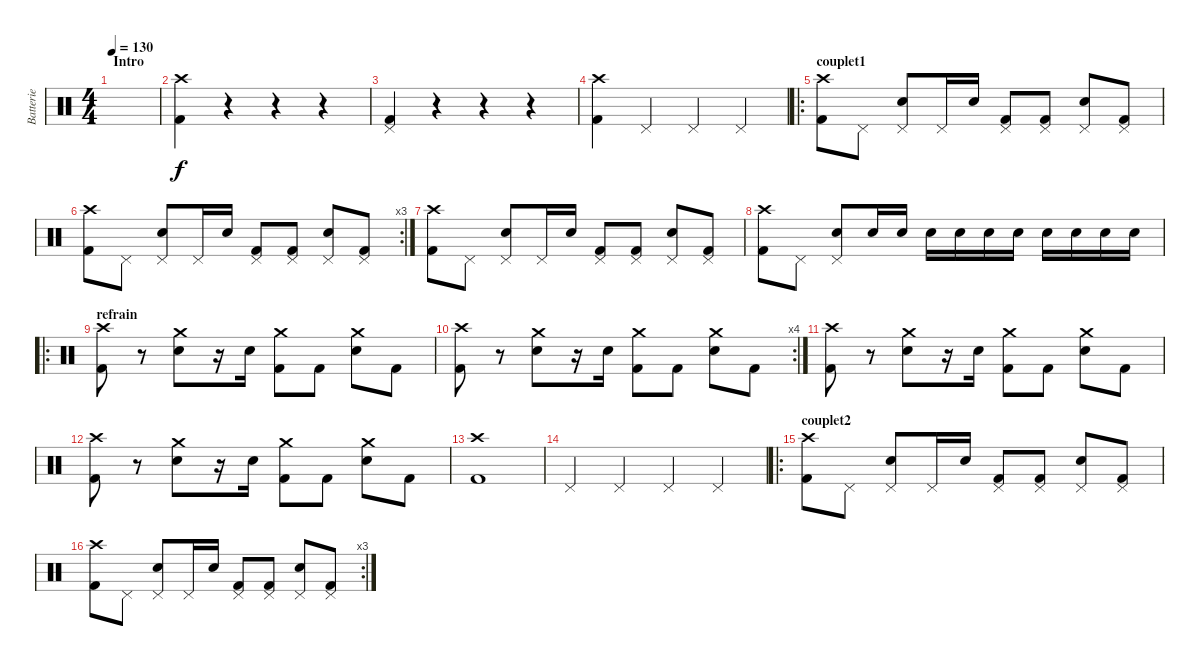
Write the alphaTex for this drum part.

\track ("Batterie" "Batterie") {instrument percussion}
\staff {score}
\articulation defaults
\ts (4 4)
\section ("" "Intro")
\tempo 130
\clef neutral
\ks c
|
("Crash high (hit)" "Kick (hit) 2").4 r.4 r.4 r.4 |
("Pedal Hi-Hat (hit)" "Kick (hit) 2").4 r.4 r.4 r.4 |
("Crash high (hit)" "Kick (hit) 2").4 "Pedal Hi-Hat (hit)".4 "Pedal Hi-Hat (hit)".4 "Pedal Hi-Hat (hit)".4 |
\ro
\section ("" "couplet1")
("Crash high (hit)" "Kick (hit) 2").8 "Pedal Hi-Hat (hit)".8 ("Pedal Hi-Hat (hit)" "Electric Snare (hit)").8 "Pedal Hi-Hat (hit)".16 "Electric Snare (hit)".16 ("Pedal Hi-Hat (hit)" "Kick (hit) 2").8 ("Pedal Hi-Hat (hit)" "Kick (hit) 2").8 ("Pedal Hi-Hat (hit)" "Electric Snare (hit)").8 ("Pedal Hi-Hat (hit)" "Kick (hit) 2").8 |
\rc 3
("Crash high (hit)" "Kick (hit) 2").8 "Pedal Hi-Hat (hit)".8 ("Pedal Hi-Hat (hit)" "Electric Snare (hit)").8 "Pedal Hi-Hat (hit)".16 "Electric Snare (hit)".16 ("Pedal Hi-Hat (hit)" "Kick (hit) 2").8 ("Pedal Hi-Hat (hit)" "Kick (hit) 2").8 ("Pedal Hi-Hat (hit)" "Electric Snare (hit)").8 ("Pedal Hi-Hat (hit)" "Kick (hit) 2").8 |
("Crash high (hit)" "Kick (hit) 2").8 "Pedal Hi-Hat (hit)".8 ("Pedal Hi-Hat (hit)" "Electric Snare (hit)").8 "Pedal Hi-Hat (hit)".16 "Electric Snare (hit)".16 ("Pedal Hi-Hat (hit)" "Kick (hit) 2").8 ("Pedal Hi-Hat (hit)" "Kick (hit) 2").8 ("Pedal Hi-Hat (hit)" "Electric Snare (hit)").8 ("Pedal Hi-Hat (hit)" "Kick (hit) 2").8 |
("Crash high (hit)" "Kick (hit) 2").8 "Pedal Hi-Hat (hit)".8 ("Electric Snare (hit)" "Pedal Hi-Hat (hit)").8 "Electric Snare (hit)".16 "Electric Snare (hit)".16 "Electric Snare (hit)".16 "Electric Snare (hit)".16 "Electric Snare (hit)".16 "Electric Snare (hit)".16 "Electric Snare (hit)".16 "Electric Snare (hit)".16 "Electric Snare (hit)".16 "Electric Snare (hit)".16 |
\ro
\section ("" "refrain")
("Crash high (hit)" "Kick (hit) 2").8 r.8 ("Crash medium (hit)" "Electric Snare (hit)").8 r.16 "Electric Snare (hit)".16 ("Crash medium (hit)" "Kick (hit) 2").8 "Kick (hit) 2".8 ("Crash medium (hit)" "Electric Snare (hit)").8 "Kick (hit) 2".8 |
\rc 4
("Crash high (hit)" "Kick (hit) 2").8 r.8 ("Crash medium (hit)" "Electric Snare (hit)").8 r.16 "Electric Snare (hit)".16 ("Crash medium (hit)" "Kick (hit) 2").8 "Kick (hit) 2".8 ("Crash medium (hit)" "Electric Snare (hit)").8 "Kick (hit) 2".8 |
("Crash high (hit)" "Kick (hit) 2").8 r.8 ("Crash medium (hit)" "Electric Snare (hit)").8 r.16 "Electric Snare (hit)".16 ("Crash medium (hit)" "Kick (hit) 2").8 "Kick (hit) 2".8 ("Crash medium (hit)" "Electric Snare (hit)").8 "Kick (hit) 2".8 |
("Crash high (hit)" "Kick (hit) 2").8 r.8 ("Crash medium (hit)" "Electric Snare (hit)").8 r.16 "Electric Snare (hit)".16 ("Crash medium (hit)" "Kick (hit) 2").8 "Kick (hit) 2".8 ("Crash medium (hit)" "Electric Snare (hit)").8 "Kick (hit) 2".8 |
("Crash high (hit)" "Kick (hit) 2").1 |
"Pedal Hi-Hat (hit)".4 "Pedal Hi-Hat (hit)".4 "Pedal Hi-Hat (hit)".4 "Pedal Hi-Hat (hit)".4 |
\ro
\section ("" "couplet2")
("Crash high (hit)" "Kick (hit) 2").8 "Pedal Hi-Hat (hit)".8 ("Pedal Hi-Hat (hit)" "Electric Snare (hit)").8 "Pedal Hi-Hat (hit)".16 "Electric Snare (hit)".16 ("Pedal Hi-Hat (hit)" "Kick (hit) 2").8 ("Pedal Hi-Hat (hit)" "Kick (hit) 2").8 ("Pedal Hi-Hat (hit)" "Electric Snare (hit)").8 ("Pedal Hi-Hat (hit)" "Kick (hit) 2").8 |
\rc 3
("Crash high (hit)" "Kick (hit) 2").8 "Pedal Hi-Hat (hit)".8 ("Pedal Hi-Hat (hit)" "Electric Snare (hit)").8 "Pedal Hi-Hat (hit)".16 "Electric Snare (hit)".16 ("Pedal Hi-Hat (hit)" "Kick (hit) 2").8 ("Pedal Hi-Hat (hit)" "Kick (hit) 2").8 ("Pedal Hi-Hat (hit)" "Electric Snare (hit)").8 ("Pedal Hi-Hat (hit)" "Kick (hit) 2").8
